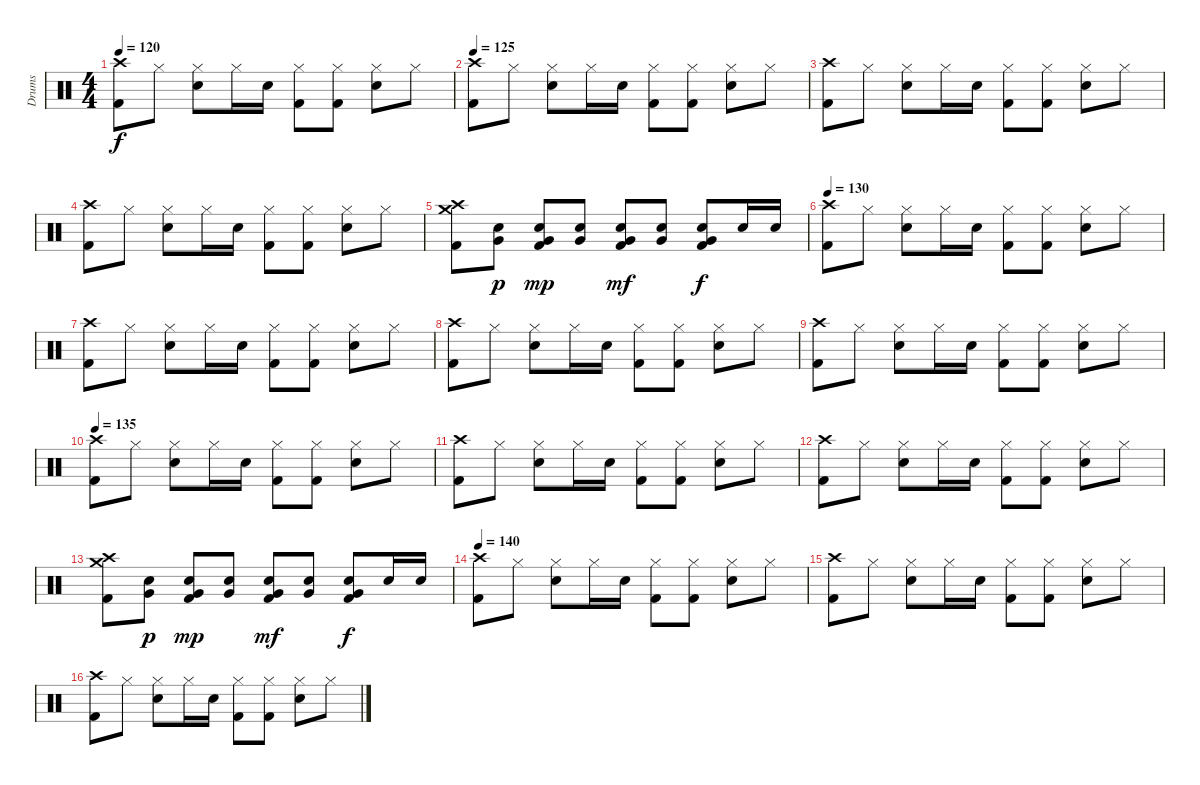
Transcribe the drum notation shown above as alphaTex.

\track ("Drums" "Drums") {instrument percussion}
\staff {score}
\articulation defaults
\ts (4 4)
\tempo 120
\clef neutral
\ks c
("Crash high (hit)" "Kick (hit) 2").8{dy f} "Hi-Hat (closed)".8 ("Hi-Hat (closed)" "Snare (hit) 2").8 "Hi-Hat (closed)".16 "Snare (hit) 2".16 ("Hi-Hat (closed)" "Kick (hit) 2").8 ("Hi-Hat (closed)" "Kick (hit) 2").8 ("Hi-Hat (closed)" "Snare (hit) 2").8 "Hi-Hat (closed)".8 |
\tempo 125
("Crash high (hit)" "Kick (hit) 2").8 "Hi-Hat (closed)".8 ("Hi-Hat (closed)" "Snare (hit) 2").8 "Hi-Hat (closed)".16 "Snare (hit) 2".16 ("Hi-Hat (closed)" "Kick (hit) 2").8 ("Hi-Hat (closed)" "Kick (hit) 2").8 ("Hi-Hat (closed)" "Snare (hit) 2").8 "Hi-Hat (closed)".8 |
("Crash high (hit)" "Kick (hit) 2").8 "Hi-Hat (closed)".8 ("Hi-Hat (closed)" "Snare (hit) 2").8 "Hi-Hat (closed)".16 "Snare (hit) 2".16 ("Hi-Hat (closed)" "Kick (hit) 2").8 ("Hi-Hat (closed)" "Kick (hit) 2").8 ("Hi-Hat (closed)" "Snare (hit) 2").8 "Hi-Hat (closed)".8 |
("Crash high (hit)" "Kick (hit) 2").8 "Hi-Hat (closed)".8 ("Hi-Hat (closed)" "Snare (hit) 2").8 "Hi-Hat (closed)".16 "Snare (hit) 2".16 ("Hi-Hat (closed)" "Kick (hit) 2").8 ("Hi-Hat (closed)" "Kick (hit) 2").8 ("Hi-Hat (closed)" "Snare (hit) 2").8 "Hi-Hat (closed)".8 |
("Crash high (hit)" "Crash medium (hit)" "Kick (hit) 2").8 ("Very Low Tom (hit)" "Snare (hit) 2").8{dy p} ("Very Low Tom (hit)" "Snare (hit) 2" "Kick (hit) 2").8{dy mp} ("Very Low Tom (hit)" "Snare (hit) 2").8 ("Very Low Tom (hit)" "Snare (hit) 2" "Kick (hit) 2").8{dy mf} ("Very Low Tom (hit)" "Snare (hit) 2").8 ("Very Low Tom (hit)" "Snare (hit) 2" "Kick (hit) 2").8{dy f} "Snare (hit) 2".16 "Snare (hit) 2".16 |
\tempo 130
("Crash high (hit)" "Kick (hit) 2").8 "Hi-Hat (closed)".8 ("Hi-Hat (closed)" "Snare (hit) 2").8 "Hi-Hat (closed)".16 "Snare (hit) 2".16 ("Hi-Hat (closed)" "Kick (hit) 2").8 ("Hi-Hat (closed)" "Kick (hit) 2").8 ("Hi-Hat (closed)" "Snare (hit) 2").8 "Hi-Hat (closed)".8 |
("Crash high (hit)" "Kick (hit) 2").8 "Hi-Hat (closed)".8 ("Hi-Hat (closed)" "Snare (hit) 2").8 "Hi-Hat (closed)".16 "Snare (hit) 2".16 ("Hi-Hat (closed)" "Kick (hit) 2").8 ("Hi-Hat (closed)" "Kick (hit) 2").8 ("Hi-Hat (closed)" "Snare (hit) 2").8 "Hi-Hat (closed)".8 |
("Crash high (hit)" "Kick (hit) 2").8 "Hi-Hat (closed)".8 ("Hi-Hat (closed)" "Snare (hit) 2").8 "Hi-Hat (closed)".16 "Snare (hit) 2".16 ("Hi-Hat (closed)" "Kick (hit) 2").8 ("Hi-Hat (closed)" "Kick (hit) 2").8 ("Hi-Hat (closed)" "Snare (hit) 2").8 "Hi-Hat (closed)".8 |
("Crash high (hit)" "Kick (hit) 2").8 "Hi-Hat (closed)".8 ("Hi-Hat (closed)" "Snare (hit) 2").8 "Hi-Hat (closed)".16 "Snare (hit) 2".16 ("Hi-Hat (closed)" "Kick (hit) 2").8 ("Hi-Hat (closed)" "Kick (hit) 2").8 ("Hi-Hat (closed)" "Snare (hit) 2").8 "Hi-Hat (closed)".8 |
\tempo 135
("Crash high (hit)" "Kick (hit) 2").8 "Hi-Hat (closed)".8 ("Hi-Hat (closed)" "Snare (hit) 2").8 "Hi-Hat (closed)".16 "Snare (hit) 2".16 ("Hi-Hat (closed)" "Kick (hit) 2").8 ("Hi-Hat (closed)" "Kick (hit) 2").8 ("Hi-Hat (closed)" "Snare (hit) 2").8 "Hi-Hat (closed)".8 |
("Crash high (hit)" "Kick (hit) 2").8 "Hi-Hat (closed)".8 ("Hi-Hat (closed)" "Snare (hit) 2").8 "Hi-Hat (closed)".16 "Snare (hit) 2".16 ("Hi-Hat (closed)" "Kick (hit) 2").8 ("Hi-Hat (closed)" "Kick (hit) 2").8 ("Hi-Hat (closed)" "Snare (hit) 2").8 "Hi-Hat (closed)".8 |
("Crash high (hit)" "Kick (hit) 2").8 "Hi-Hat (closed)".8 ("Hi-Hat (closed)" "Snare (hit) 2").8 "Hi-Hat (closed)".16 "Snare (hit) 2".16 ("Hi-Hat (closed)" "Kick (hit) 2").8 ("Hi-Hat (closed)" "Kick (hit) 2").8 ("Hi-Hat (closed)" "Snare (hit) 2").8 "Hi-Hat (closed)".8 |
("Crash high (hit)" "Crash medium (hit)" "Kick (hit) 2").8 ("Very Low Tom (hit)" "Snare (hit) 2").8{dy p} ("Very Low Tom (hit)" "Snare (hit) 2" "Kick (hit) 2").8{dy mp} ("Very Low Tom (hit)" "Snare (hit) 2").8 ("Very Low Tom (hit)" "Snare (hit) 2" "Kick (hit) 2").8{dy mf} ("Very Low Tom (hit)" "Snare (hit) 2").8 ("Very Low Tom (hit)" "Snare (hit) 2" "Kick (hit) 2").8{dy f} "Snare (hit) 2".16 "Snare (hit) 2".16 |
\tempo 140
("Crash high (hit)" "Kick (hit) 2").8 "Hi-Hat (closed)".8 ("Hi-Hat (closed)" "Snare (hit) 2").8 "Hi-Hat (closed)".16 "Snare (hit) 2".16 ("Hi-Hat (closed)" "Kick (hit) 2").8 ("Hi-Hat (closed)" "Kick (hit) 2").8 ("Hi-Hat (closed)" "Snare (hit) 2").8 "Hi-Hat (closed)".8 |
("Crash high (hit)" "Kick (hit) 2").8 "Hi-Hat (closed)".8 ("Hi-Hat (closed)" "Snare (hit) 2").8 "Hi-Hat (closed)".16 "Snare (hit) 2".16 ("Hi-Hat (closed)" "Kick (hit) 2").8 ("Hi-Hat (closed)" "Kick (hit) 2").8 ("Hi-Hat (closed)" "Snare (hit) 2").8 "Hi-Hat (closed)".8 |
("Crash high (hit)" "Kick (hit) 2").8 "Hi-Hat (closed)".8 ("Hi-Hat (closed)" "Snare (hit) 2").8 "Hi-Hat (closed)".16 "Snare (hit) 2".16 ("Hi-Hat (closed)" "Kick (hit) 2").8 ("Hi-Hat (closed)" "Kick (hit) 2").8 ("Hi-Hat (closed)" "Snare (hit) 2").8 "Hi-Hat (closed)".8
